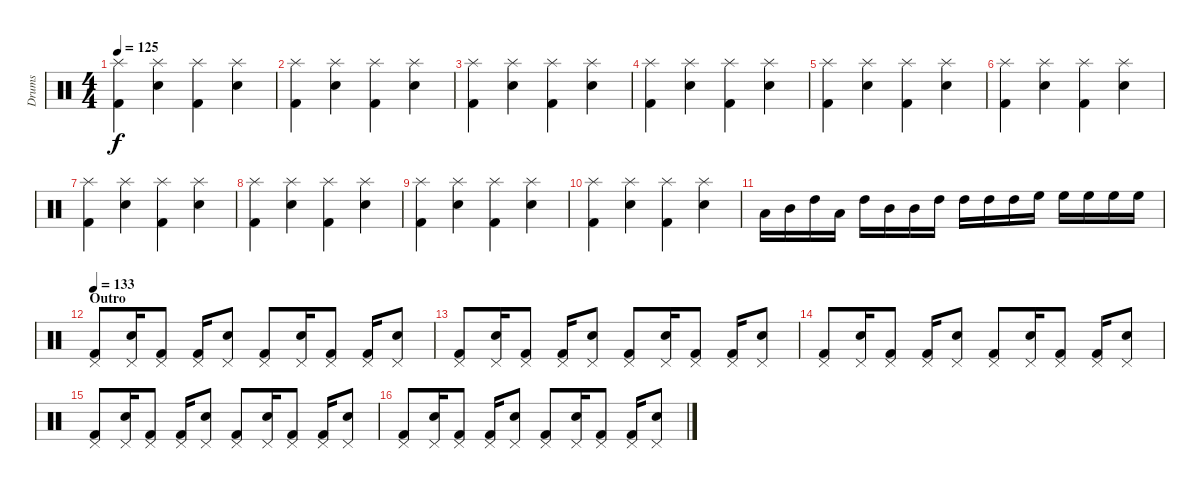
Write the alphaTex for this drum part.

\track ("Drums" "Drums") {instrument percussion}
\staff {score}
\articulation defaults
\ts (4 4)
\tempo 125
\clef neutral
\ks c
("Splash (hit)" "Kick (hit) 2").4{dy f} ("Splash (hit)" "Electric Snare (hit)").4 ("Splash (hit)" "Kick (hit) 2").4 ("Splash (hit)" "Electric Snare (hit)").4 |
("Splash (hit)" "Kick (hit) 2").4 ("Splash (hit)" "Electric Snare (hit)").4 ("Splash (hit)" "Kick (hit) 2").4 ("Splash (hit)" "Electric Snare (hit)").4 |
("Splash (hit)" "Kick (hit) 2").4 ("Splash (hit)" "Electric Snare (hit)").4 ("Splash (hit)" "Kick (hit) 2").4 ("Splash (hit)" "Electric Snare (hit)").4 |
("Splash (hit)" "Kick (hit) 2").4 ("Splash (hit)" "Electric Snare (hit)").4 ("Splash (hit)" "Kick (hit) 2").4 ("Splash (hit)" "Electric Snare (hit)").4 |
("Splash (hit)" "Kick (hit) 2").4 ("Splash (hit)" "Electric Snare (hit)").4 ("Splash (hit)" "Kick (hit) 2").4 ("Splash (hit)" "Electric Snare (hit)").4 |
("Splash (hit)" "Kick (hit) 2").4 ("Splash (hit)" "Electric Snare (hit)").4 ("Splash (hit)" "Kick (hit) 2").4 ("Splash (hit)" "Electric Snare (hit)").4 |
("Splash (hit)" "Kick (hit) 2").4 ("Splash (hit)" "Electric Snare (hit)").4 ("Splash (hit)" "Kick (hit) 2").4 ("Splash (hit)" "Electric Snare (hit)").4 |
("Splash (hit)" "Kick (hit) 2").4 ("Splash (hit)" "Electric Snare (hit)").4 ("Splash (hit)" "Kick (hit) 2").4 ("Splash (hit)" "Electric Snare (hit)").4 |
("Splash (hit)" "Kick (hit) 2").4 ("Splash (hit)" "Electric Snare (hit)").4 ("Splash (hit)" "Kick (hit) 2").4 ("Splash (hit)" "Electric Snare (hit)").4 |
("Splash (hit)" "Kick (hit) 2").4 ("Splash (hit)" "Electric Snare (hit)").4 ("Splash (hit)" "Kick (hit) 2").4 ("Splash (hit)" "Electric Snare (hit)").4 |
"Low Tom (hit)".16 "Mid Tom (hit)".16 "High Tom (hit)".16 "Low Tom (hit)".16 "High Tom (hit)".16 "Mid Tom (hit)".16 "Mid Tom (hit)".16 "High Tom (hit)".16 "High Tom (hit)".16 "High Tom (hit)".16 "High Tom (hit)".16 "High Floor Tom (hit)".16 "High Floor Tom (hit)".16 "High Floor Tom (hit)".16 "High Floor Tom (hit)".16 "High Floor Tom (hit)".16 |
\section ("" "Outro")
\tempo 133
("Pedal Hi-Hat (hit)" "Kick (hit) 2").8 ("Pedal Hi-Hat (hit)" "Electric Snare (hit)").16 ("Pedal Hi-Hat (hit)" "Kick (hit) 2").8 ("Pedal Hi-Hat (hit)" "Kick (hit) 2").16 ("Pedal Hi-Hat (hit)" "Electric Snare (hit)").8 ("Pedal Hi-Hat (hit)" "Kick (hit) 2").8 ("Pedal Hi-Hat (hit)" "Electric Snare (hit)").16 ("Pedal Hi-Hat (hit)" "Kick (hit) 2").8 ("Pedal Hi-Hat (hit)" "Kick (hit) 2").16 ("Pedal Hi-Hat (hit)" "Electric Snare (hit)").8 |
("Pedal Hi-Hat (hit)" "Kick (hit) 2").8 ("Pedal Hi-Hat (hit)" "Electric Snare (hit)").16 ("Pedal Hi-Hat (hit)" "Kick (hit) 2").8 ("Pedal Hi-Hat (hit)" "Kick (hit) 2").16 ("Pedal Hi-Hat (hit)" "Electric Snare (hit)").8 ("Pedal Hi-Hat (hit)" "Kick (hit) 2").8 ("Pedal Hi-Hat (hit)" "Electric Snare (hit)").16 ("Pedal Hi-Hat (hit)" "Kick (hit) 2").8 ("Pedal Hi-Hat (hit)" "Kick (hit) 2").16 ("Pedal Hi-Hat (hit)" "Electric Snare (hit)").8 |
("Pedal Hi-Hat (hit)" "Kick (hit) 2").8 ("Pedal Hi-Hat (hit)" "Electric Snare (hit)").16 ("Pedal Hi-Hat (hit)" "Kick (hit) 2").8 ("Pedal Hi-Hat (hit)" "Kick (hit) 2").16 ("Pedal Hi-Hat (hit)" "Electric Snare (hit)").8 ("Pedal Hi-Hat (hit)" "Kick (hit) 2").8 ("Pedal Hi-Hat (hit)" "Electric Snare (hit)").16 ("Pedal Hi-Hat (hit)" "Kick (hit) 2").8 ("Pedal Hi-Hat (hit)" "Kick (hit) 2").16 ("Pedal Hi-Hat (hit)" "Electric Snare (hit)").8 |
("Pedal Hi-Hat (hit)" "Kick (hit) 2").8 ("Pedal Hi-Hat (hit)" "Electric Snare (hit)").16 ("Pedal Hi-Hat (hit)" "Kick (hit) 2").8 ("Pedal Hi-Hat (hit)" "Kick (hit) 2").16 ("Pedal Hi-Hat (hit)" "Electric Snare (hit)").8 ("Pedal Hi-Hat (hit)" "Kick (hit) 2").8 ("Pedal Hi-Hat (hit)" "Electric Snare (hit)").16 ("Pedal Hi-Hat (hit)" "Kick (hit) 2").8 ("Pedal Hi-Hat (hit)" "Kick (hit) 2").16 ("Pedal Hi-Hat (hit)" "Electric Snare (hit)").8 |
("Pedal Hi-Hat (hit)" "Kick (hit) 2").8 ("Pedal Hi-Hat (hit)" "Electric Snare (hit)").16 ("Pedal Hi-Hat (hit)" "Kick (hit) 2").8 ("Pedal Hi-Hat (hit)" "Kick (hit) 2").16 ("Pedal Hi-Hat (hit)" "Electric Snare (hit)").8 ("Pedal Hi-Hat (hit)" "Kick (hit) 2").8 ("Pedal Hi-Hat (hit)" "Electric Snare (hit)").16 ("Pedal Hi-Hat (hit)" "Kick (hit) 2").8 ("Pedal Hi-Hat (hit)" "Kick (hit) 2").16 ("Pedal Hi-Hat (hit)" "Electric Snare (hit)").8
